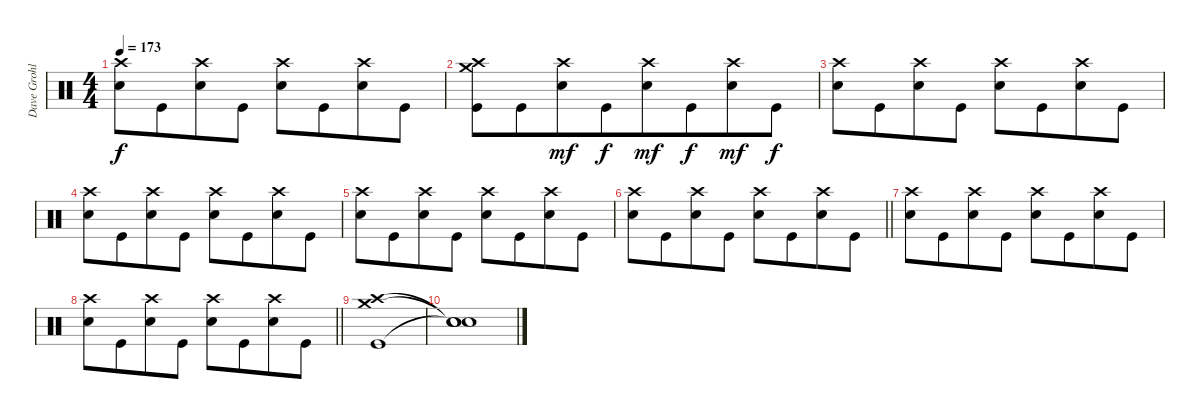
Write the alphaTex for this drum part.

\track ("Dave Grohl" "Dave Grohl") {instrument percussion}
\staff {score}
\articulation defaults
\ts (4 4)
\tempo 173
\clef neutral
\ks c
("Crash high (hit)" "Snare (hit) 2").8{dy f} "Kick (hit)".8{beam merge} ("Crash high (hit)" "Snare (hit) 2").8 "Kick (hit)".8 ("Crash high (hit)" "Snare (hit) 2").8 "Kick (hit)".8{beam merge} ("Crash high (hit)" "Snare (hit) 2").8 "Kick (hit)".8 |
("Crash medium (hit)" "Crash high (hit)" "Kick (hit)").8 "Kick (hit)".8{beam merge} ("Crash high (hit)" "Snare (hit) 2").8{dy mf} "Kick (hit)".8{dy f beam merge} ("Crash high (hit)" "Snare (hit) 2").8{dy mf beam merge} "Kick (hit)".8{dy f beam merge} ("Crash high (hit)" "Snare (hit) 2").8{dy mf} "Kick (hit)".8{dy f} |
("Crash high (hit)" "Snare (hit) 2").8 "Kick (hit)".8{beam merge} ("Crash high (hit)" "Snare (hit) 2").8 "Kick (hit)".8 ("Crash high (hit)" "Snare (hit) 2").8 "Kick (hit)".8{beam merge} ("Crash high (hit)" "Snare (hit) 2").8 "Kick (hit)".8 |
("Crash high (hit)" "Snare (hit) 2").8 "Kick (hit)".8{beam merge} ("Crash high (hit)" "Snare (hit) 2").8 "Kick (hit)".8 ("Crash high (hit)" "Snare (hit) 2").8 "Kick (hit)".8{beam merge} ("Crash high (hit)" "Snare (hit) 2").8 "Kick (hit)".8 |
("Crash high (hit)" "Snare (hit) 2").8 "Kick (hit)".8{beam merge} ("Crash high (hit)" "Snare (hit) 2").8 "Kick (hit)".8 ("Crash high (hit)" "Snare (hit) 2").8 "Kick (hit)".8{beam merge} ("Crash high (hit)" "Snare (hit) 2").8 "Kick (hit)".8 |
\barLineRight lightlight
("Crash high (hit)" "Snare (hit) 2").8 "Kick (hit)".8{beam merge} ("Crash high (hit)" "Snare (hit) 2").8 "Kick (hit)".8 ("Crash high (hit)" "Snare (hit) 2").8 "Kick (hit)".8{beam merge} ("Crash high (hit)" "Snare (hit) 2").8 "Kick (hit)".8 |
("Crash high (hit)" "Snare (hit) 2").8 "Kick (hit)".8{beam merge} ("Crash high (hit)" "Snare (hit) 2").8 "Kick (hit)".8 ("Crash high (hit)" "Snare (hit) 2").8 "Kick (hit)".8{beam merge} ("Crash high (hit)" "Snare (hit) 2").8 "Kick (hit)".8 |
\barLineRight lightlight
("Crash high (hit)" "Snare (hit) 2").8 "Kick (hit)".8{beam merge} ("Crash high (hit)" "Snare (hit) 2").8 "Kick (hit)".8 ("Crash high (hit)" "Snare (hit) 2").8 "Kick (hit)".8{beam merge} ("Crash high (hit)" "Snare (hit) 2").8 "Kick (hit)".8 |
("Crash medium (hit)" "Crash high (hit)" "Kick (hit)").1 |
("Snare (hit)"{t} "Snare (hit)"{t} "Snare (hit)"{t}).1
